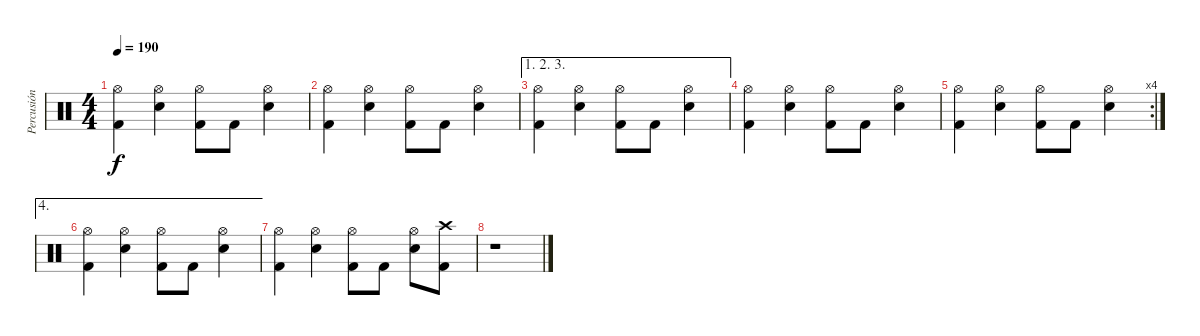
\track ("Percusión" "Percusión") {instrument percussion}
\staff {score}
\articulation defaults
\ts (4 4)
\tempo 190
\clef neutral
\ks c
("Hi-Hat (open)" "Kick (hit) 2").4{dy f} ("Hi-Hat (open)" "Electric Snare (hit)").4 ("Hi-Hat (open)" "Kick (hit) 2").8 "Kick (hit) 2".8 ("Hi-Hat (open)" "Electric Snare (hit)").4 |
("Hi-Hat (open)" "Kick (hit) 2").4 ("Hi-Hat (open)" "Electric Snare (hit)").4 ("Hi-Hat (open)" "Kick (hit) 2").8 "Kick (hit) 2".8 ("Hi-Hat (open)" "Electric Snare (hit)").4 |
\ae (1 2 3)
("Hi-Hat (open)" "Kick (hit) 2").4 ("Hi-Hat (open)" "Electric Snare (hit)").4 ("Hi-Hat (open)" "Kick (hit) 2").8 "Kick (hit) 2".8 ("Hi-Hat (open)" "Electric Snare (hit)").4 |
("Hi-Hat (open)" "Kick (hit) 2").4 ("Hi-Hat (open)" "Electric Snare (hit)").4 ("Hi-Hat (open)" "Kick (hit) 2").8 "Kick (hit) 2".8 ("Hi-Hat (open)" "Electric Snare (hit)").4 |
\rc 4
("Hi-Hat (open)" "Kick (hit) 2").4 ("Hi-Hat (open)" "Electric Snare (hit)").4 ("Hi-Hat (open)" "Kick (hit) 2").8 "Kick (hit) 2".8 ("Hi-Hat (open)" "Electric Snare (hit)").4 |
\ae 4
("Hi-Hat (open)" "Kick (hit) 2").4 ("Hi-Hat (open)" "Electric Snare (hit)").4 ("Hi-Hat (open)" "Kick (hit) 2").8 "Kick (hit) 2".8 ("Hi-Hat (open)" "Electric Snare (hit)").4 |
("Hi-Hat (open)" "Kick (hit) 2").4 ("Hi-Hat (open)" "Electric Snare (hit)").4 ("Hi-Hat (open)" "Kick (hit) 2").8 "Kick (hit) 2".8 ("Hi-Hat (open)" "Electric Snare (hit)").8 ("Crash high (hit)" "Kick (hit) 2").8 |
r.1
